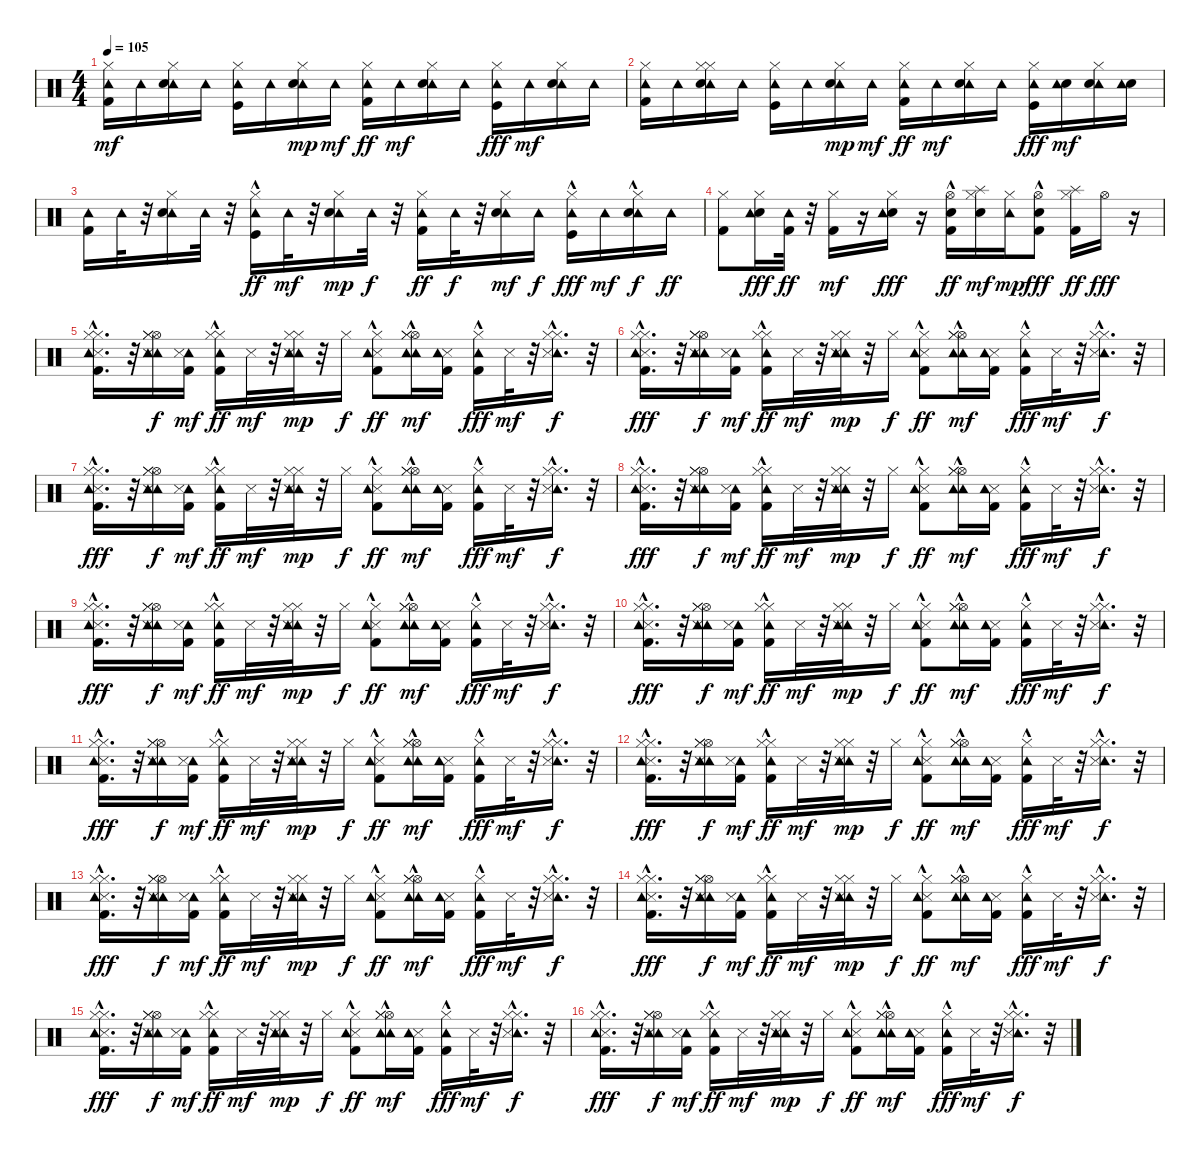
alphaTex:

\track "" {instrument percussion}
\staff {score}
\articulation defaults
\ts (4 4)
\tempo 105
\clef neutral
\ks c
("Kick (hit) 2" "Hi-Hat (closed)" "Tambourine (hit)").16{dy mf} "Tambourine (hit)".16 ("Hi-Hat (closed)" "Tambourine (hit)" "Snare (hit) 2").16 "Tambourine (hit)".16 ("Kick (hit)" "Hi-Hat (closed)" "Tambourine (hit)").16 "Tambourine (hit)".16 ("Tambourine (hit)" "Hi-Hat (closed)" "Snare (hit) 2").16{dy mp} "Tambourine (hit)".16{dy mf} ("Tambourine (hit)" "Hi-Hat (closed)" "Kick (hit) 2").16{dy ff} "Tambourine (hit)".16{dy mf} ("Tambourine (hit)" "Hi-Hat (closed)" "Snare (hit) 2").16 "Tambourine (hit)".16 ("Tambourine (hit)" "Kick (hit)" "Hi-Hat (closed)").16{dy fff} "Tambourine (hit)".16{dy mf} ("Tambourine (hit)" "Hi-Hat (closed)" "Snare (hit) 2").16 "Tambourine (hit)".16 |
("Kick (hit) 2" "Hi-Hat (closed)" "Tambourine (hit)").16 "Tambourine (hit)".16 ("Hi-Hat (closed)" "Tambourine (hit)" "Hi-Hat (closed)" "Snare (hit) 2").16 "Tambourine (hit)".16 ("Kick (hit)" "Hi-Hat (closed)" "Tambourine (hit)").16 "Tambourine (hit)".16 ("Tambourine (hit)" "Hi-Hat (closed)" "Snare (hit) 2").16{dy mp} "Tambourine (hit)".16{dy mf} ("Tambourine (hit)" "Hi-Hat (closed)" "Kick (hit) 2").16{dy ff} "Tambourine (hit)".16{dy mf} ("Tambourine (hit)" "Hi-Hat (closed)" "Snare (hit) 2").16 "Tambourine (hit)".16 ("Tambourine (hit)" "Kick (hit)" "Hi-Hat (closed)").16{dy fff} ("Snare (hit) 2" "Tambourine (hit)").16{dy mf} ("Hi-Hat (closed)" "Tambourine (hit)" "Snare (hit) 2").16 ("Snare (hit) 2" "Tambourine (hit)").16 |
("Tambourine (hit)" "Kick (hit) 2").16 "Tambourine (hit)".32 r.32 ("Tambourine (hit)" "Hi-Hat (closed)" "Snare (hit) 2").16 "Tambourine (hit)".32 r.32 ("Kick (hit)"{hac} "Hi-Hat (closed)" "Tambourine (hit)").16{dy ff} "Tambourine (hit)".32{dy mf} r.32 ("Tambourine (hit)" "Hi-Hat (closed)" "Snare (hit) 2").16{dy mp} "Tambourine (hit)".32{dy f} r.32 ("Tambourine (hit)" "Hi-Hat (closed)" "Kick (hit) 2").16{dy ff} "Tambourine (hit)".32{dy f} r.32 ("Tambourine (hit)" "Hi-Hat (closed)" "Snare (hit) 2").16{dy mf} "Tambourine (hit)".16{dy f} ("Tambourine (hit)" "Kick (hit)"{hac} "Hi-Hat (closed)").16{dy fff} "Tambourine (hit)".16{dy mf} ("Hi-Hat (closed)"{hac} "Tambourine (hit)" "Snare (hit) 2").16{dy f} "Tambourine (hit)".16{dy ff} |
("Hi-Hat (closed)" "Kick (hit) 2").8 ("Hi-Hat (closed)" "Snare (hit) 2" "Tambourine (hit)").16{dy fff} ("Kick (hit) 2" "Tambourine (hit)").32{dy ff} r.32 ("Kick (hit) 2" "Hi-Hat (closed)").16{dy mf} r.16 ("Hi-Hat (closed)" "Snare (hit) 2" "Tambourine (hit)").16{dy fff} r.16 ("Hi-Hat (open)"{hac} "Kick (hit) 2" "Snare (hit) 2").16{dy ff} ("Snare (hit) 2" "Hi-Hat (closed)" "Splash (hit)").16{dy mf} ("Tambourine (hit)" "Hi-Hat (closed)").16{dy mp} ("Kick (hit) 2" "Snare (hit) 2" "Hi-Hat (open)"{hac}).8{dy fff} ("Splash (hit)" "Hi-Hat (closed)" "Kick (hit) 2").16{dy ff} "Hi-Hat (open)".16{dy fff} r.16 |
("Snare (side stick) 3"{hac} "Hi-Hat (closed)"{hac} "Kick (hit) 2"{hac} "Hi-Hat (closed)"{hac} "Tambourine (hit)").16{d} r.32 ("Hi-Hat (open)" "Hi-Hat (closed)" "Tambourine (hit)" "Hi-Hat (closed)" "Snare (side stick) 3" "Tambourine (hit)").16{dy f} ("Tambourine (hit)" "Snare (side stick) 3" "Kick (hit) 2").16{dy mf} ("Tambourine (hit)" "Hi-Hat (closed)" "Kick (hit) 2"{hac} "Hi-Hat (closed)").16{dy ff} "Snare (side stick) 3".32{dy mf} r.32 ("Tambourine (hit)" "Snare (side stick) 3" "Hi-Hat (closed)" "Tambourine (hit)" "Hi-Hat (closed)").32{dy mp} r.32 "Hi-Hat (closed)".16{dy f} ("Snare (side stick) 3" "Hi-Hat (closed)"{hac} "Kick (hit) 2" "Tambourine (hit)").8{dy ff} ("Tambourine (hit)" "Hi-Hat (open)"{hac} "Hi-Hat (closed)" "Hi-Hat (closed)" "Tambourine (hit)").16{dy mf} ("Snare (side stick) 3" "Tambourine (hit)" "Kick (hit) 2").16 ("Tambourine (hit)" "Kick (hit) 2"{hac} "Hi-Hat (closed)").16{dy fff} "Snare (side stick) 3".32{dy mf} r.32 ("Hi-Hat (closed)"{hac} "Tambourine (hit)" "Hi-Hat (closed)"{hac} "Snare (side stick) 3").16{d dy f} r.32 |
("Snare (side stick) 3"{hac} "Hi-Hat (closed)"{hac} "Kick (hit) 2"{hac} "Hi-Hat (closed)"{hac} "Tambourine (hit)").16{d dy fff} r.32 ("Hi-Hat (open)" "Hi-Hat (closed)" "Tambourine (hit)" "Hi-Hat (closed)" "Snare (side stick) 3" "Tambourine (hit)").16{dy f} ("Tambourine (hit)" "Snare (side stick) 3" "Kick (hit) 2").16{dy mf} ("Tambourine (hit)" "Hi-Hat (closed)" "Kick (hit) 2"{hac} "Hi-Hat (closed)").16{dy ff} "Snare (side stick) 3".32{dy mf} r.32 ("Tambourine (hit)" "Snare (side stick) 3" "Hi-Hat (closed)" "Tambourine (hit)" "Hi-Hat (closed)").32{dy mp} r.32 "Hi-Hat (closed)".16{dy f} ("Snare (side stick) 3" "Hi-Hat (closed)"{hac} "Kick (hit) 2" "Tambourine (hit)").8{dy ff} ("Tambourine (hit)" "Hi-Hat (open)"{hac} "Hi-Hat (closed)" "Hi-Hat (closed)" "Tambourine (hit)").16{dy mf} ("Snare (side stick) 3" "Tambourine (hit)" "Kick (hit) 2").16 ("Tambourine (hit)" "Kick (hit) 2"{hac} "Hi-Hat (closed)").16{dy fff} "Snare (side stick) 3".32{dy mf} r.32 ("Hi-Hat (closed)"{hac} "Tambourine (hit)" "Hi-Hat (closed)"{hac} "Snare (side stick) 3").16{d dy f} r.32 |
("Snare (side stick) 3"{hac} "Hi-Hat (closed)"{hac} "Kick (hit) 2"{hac} "Hi-Hat (closed)"{hac} "Tambourine (hit)").16{d dy fff} r.32 ("Hi-Hat (open)" "Hi-Hat (closed)" "Tambourine (hit)" "Hi-Hat (closed)" "Snare (side stick) 3" "Tambourine (hit)").16{dy f} ("Tambourine (hit)" "Snare (side stick) 3" "Kick (hit) 2").16{dy mf} ("Tambourine (hit)" "Hi-Hat (closed)" "Kick (hit) 2"{hac} "Hi-Hat (closed)").16{dy ff} "Snare (side stick) 3".32{dy mf} r.32 ("Tambourine (hit)" "Snare (side stick) 3" "Hi-Hat (closed)" "Tambourine (hit)" "Hi-Hat (closed)").32{dy mp} r.32 "Hi-Hat (closed)".16{dy f} ("Snare (side stick) 3" "Hi-Hat (closed)"{hac} "Kick (hit) 2" "Tambourine (hit)").8{dy ff} ("Tambourine (hit)" "Hi-Hat (open)"{hac} "Hi-Hat (closed)" "Hi-Hat (closed)" "Tambourine (hit)").16{dy mf} ("Snare (side stick) 3" "Tambourine (hit)" "Kick (hit) 2").16 ("Tambourine (hit)" "Kick (hit) 2"{hac} "Hi-Hat (closed)").16{dy fff} "Snare (side stick) 3".32{dy mf} r.32 ("Hi-Hat (closed)"{hac} "Tambourine (hit)" "Hi-Hat (closed)"{hac} "Snare (side stick) 3").16{d dy f} r.32 |
("Snare (side stick) 3"{hac} "Hi-Hat (closed)"{hac} "Kick (hit) 2"{hac} "Hi-Hat (closed)"{hac} "Tambourine (hit)").16{d dy fff} r.32 ("Hi-Hat (open)" "Hi-Hat (closed)" "Tambourine (hit)" "Hi-Hat (closed)" "Snare (side stick) 3" "Tambourine (hit)").16{dy f} ("Tambourine (hit)" "Snare (side stick) 3" "Kick (hit) 2").16{dy mf} ("Tambourine (hit)" "Hi-Hat (closed)" "Kick (hit) 2"{hac} "Hi-Hat (closed)").16{dy ff} "Snare (side stick) 3".32{dy mf} r.32 ("Tambourine (hit)" "Snare (side stick) 3" "Hi-Hat (closed)" "Tambourine (hit)" "Hi-Hat (closed)").32{dy mp} r.32 "Hi-Hat (closed)".16{dy f} ("Snare (side stick) 3" "Hi-Hat (closed)"{hac} "Kick (hit) 2" "Tambourine (hit)").8{dy ff} ("Tambourine (hit)" "Hi-Hat (open)"{hac} "Hi-Hat (closed)" "Hi-Hat (closed)" "Tambourine (hit)").16{dy mf} ("Snare (side stick) 3" "Tambourine (hit)" "Kick (hit) 2").16 ("Tambourine (hit)" "Kick (hit) 2"{hac} "Hi-Hat (closed)").16{dy fff} "Snare (side stick) 3".32{dy mf} r.32 ("Hi-Hat (closed)"{hac} "Tambourine (hit)" "Hi-Hat (closed)"{hac} "Snare (side stick) 3").16{d dy f} r.32 |
("Snare (side stick) 3"{hac} "Hi-Hat (closed)"{hac} "Kick (hit) 2"{hac} "Hi-Hat (closed)"{hac} "Tambourine (hit)").16{d dy fff} r.32 ("Hi-Hat (open)" "Hi-Hat (closed)" "Tambourine (hit)" "Hi-Hat (closed)" "Snare (side stick) 3" "Tambourine (hit)").16{dy f} ("Tambourine (hit)" "Snare (side stick) 3" "Kick (hit) 2").16{dy mf} ("Tambourine (hit)" "Hi-Hat (closed)" "Kick (hit) 2"{hac} "Hi-Hat (closed)").16{dy ff} "Snare (side stick) 3".32{dy mf} r.32 ("Tambourine (hit)" "Snare (side stick) 3" "Hi-Hat (closed)" "Tambourine (hit)" "Hi-Hat (closed)").32{dy mp} r.32 "Hi-Hat (closed)".16{dy f} ("Snare (side stick) 3" "Hi-Hat (closed)"{hac} "Kick (hit) 2" "Tambourine (hit)").8{dy ff} ("Tambourine (hit)" "Hi-Hat (open)"{hac} "Hi-Hat (closed)" "Hi-Hat (closed)" "Tambourine (hit)").16{dy mf} ("Snare (side stick) 3" "Tambourine (hit)" "Kick (hit) 2").16 ("Tambourine (hit)" "Kick (hit) 2"{hac} "Hi-Hat (closed)").16{dy fff} "Snare (side stick) 3".32{dy mf} r.32 ("Hi-Hat (closed)"{hac} "Tambourine (hit)" "Hi-Hat (closed)"{hac} "Snare (side stick) 3").16{d dy f} r.32 |
("Snare (side stick) 3"{hac} "Hi-Hat (closed)"{hac} "Kick (hit) 2"{hac} "Hi-Hat (closed)"{hac} "Tambourine (hit)").16{d dy fff} r.32 ("Hi-Hat (open)" "Hi-Hat (closed)" "Tambourine (hit)" "Hi-Hat (closed)" "Snare (side stick) 3" "Tambourine (hit)").16{dy f} ("Tambourine (hit)" "Snare (side stick) 3" "Kick (hit) 2").16{dy mf} ("Tambourine (hit)" "Hi-Hat (closed)" "Kick (hit) 2"{hac} "Hi-Hat (closed)").16{dy ff} "Snare (side stick) 3".32{dy mf} r.32 ("Tambourine (hit)" "Snare (side stick) 3" "Hi-Hat (closed)" "Tambourine (hit)" "Hi-Hat (closed)").32{dy mp} r.32 "Hi-Hat (closed)".16{dy f} ("Snare (side stick) 3" "Hi-Hat (closed)"{hac} "Kick (hit) 2" "Tambourine (hit)").8{dy ff} ("Tambourine (hit)" "Hi-Hat (open)"{hac} "Hi-Hat (closed)" "Hi-Hat (closed)" "Tambourine (hit)").16{dy mf} ("Snare (side stick) 3" "Tambourine (hit)" "Kick (hit) 2").16 ("Tambourine (hit)" "Kick (hit) 2"{hac} "Hi-Hat (closed)").16{dy fff} "Snare (side stick) 3".32{dy mf} r.32 ("Hi-Hat (closed)"{hac} "Tambourine (hit)" "Hi-Hat (closed)"{hac} "Snare (side stick) 3").16{d dy f} r.32 |
("Snare (side stick) 3"{hac} "Hi-Hat (closed)"{hac} "Kick (hit) 2"{hac} "Hi-Hat (closed)"{hac} "Tambourine (hit)").16{d dy fff} r.32 ("Hi-Hat (open)" "Hi-Hat (closed)" "Tambourine (hit)" "Hi-Hat (closed)" "Snare (side stick) 3" "Tambourine (hit)").16{dy f} ("Tambourine (hit)" "Snare (side stick) 3" "Kick (hit) 2").16{dy mf} ("Tambourine (hit)" "Hi-Hat (closed)" "Kick (hit) 2"{hac} "Hi-Hat (closed)").16{dy ff} "Snare (side stick) 3".32{dy mf} r.32 ("Tambourine (hit)" "Snare (side stick) 3" "Hi-Hat (closed)" "Tambourine (hit)" "Hi-Hat (closed)").32{dy mp} r.32 "Hi-Hat (closed)".16{dy f} ("Snare (side stick) 3" "Hi-Hat (closed)"{hac} "Kick (hit) 2" "Tambourine (hit)").8{dy ff} ("Tambourine (hit)" "Hi-Hat (open)"{hac} "Hi-Hat (closed)" "Hi-Hat (closed)" "Tambourine (hit)").16{dy mf} ("Snare (side stick) 3" "Tambourine (hit)" "Kick (hit) 2").16 ("Tambourine (hit)" "Kick (hit) 2"{hac} "Hi-Hat (closed)").16{dy fff} "Snare (side stick) 3".32{dy mf} r.32 ("Hi-Hat (closed)"{hac} "Tambourine (hit)" "Hi-Hat (closed)"{hac} "Snare (side stick) 3").16{d dy f} r.32 |
("Snare (side stick) 3"{hac} "Hi-Hat (closed)"{hac} "Kick (hit) 2"{hac} "Hi-Hat (closed)"{hac} "Tambourine (hit)").16{d dy fff} r.32 ("Hi-Hat (open)" "Hi-Hat (closed)" "Tambourine (hit)" "Hi-Hat (closed)" "Snare (side stick) 3" "Tambourine (hit)").16{dy f} ("Tambourine (hit)" "Snare (side stick) 3" "Kick (hit) 2").16{dy mf} ("Tambourine (hit)" "Hi-Hat (closed)" "Kick (hit) 2"{hac} "Hi-Hat (closed)").16{dy ff} "Snare (side stick) 3".32{dy mf} r.32 ("Tambourine (hit)" "Snare (side stick) 3" "Hi-Hat (closed)" "Tambourine (hit)" "Hi-Hat (closed)").32{dy mp} r.32 "Hi-Hat (closed)".16{dy f} ("Snare (side stick) 3" "Hi-Hat (closed)"{hac} "Kick (hit) 2" "Tambourine (hit)").8{dy ff} ("Tambourine (hit)" "Hi-Hat (open)"{hac} "Hi-Hat (closed)" "Hi-Hat (closed)" "Tambourine (hit)").16{dy mf} ("Snare (side stick) 3" "Tambourine (hit)" "Kick (hit) 2").16 ("Tambourine (hit)" "Kick (hit) 2"{hac} "Hi-Hat (closed)").16{dy fff} "Snare (side stick) 3".32{dy mf} r.32 ("Hi-Hat (closed)"{hac} "Tambourine (hit)" "Hi-Hat (closed)"{hac} "Snare (side stick) 3").16{d dy f} r.32 |
("Snare (side stick) 3"{hac} "Hi-Hat (closed)"{hac} "Kick (hit) 2"{hac} "Hi-Hat (closed)"{hac} "Tambourine (hit)").16{d dy fff} r.32 ("Hi-Hat (open)" "Hi-Hat (closed)" "Tambourine (hit)" "Hi-Hat (closed)" "Snare (side stick) 3" "Tambourine (hit)").16{dy f} ("Tambourine (hit)" "Snare (side stick) 3" "Kick (hit) 2").16{dy mf} ("Tambourine (hit)" "Hi-Hat (closed)" "Kick (hit) 2"{hac} "Hi-Hat (closed)").16{dy ff} "Snare (side stick) 3".32{dy mf} r.32 ("Tambourine (hit)" "Snare (side stick) 3" "Hi-Hat (closed)" "Tambourine (hit)" "Hi-Hat (closed)").32{dy mp} r.32 "Hi-Hat (closed)".16{dy f} ("Snare (side stick) 3" "Hi-Hat (closed)"{hac} "Kick (hit) 2" "Tambourine (hit)").8{dy ff} ("Tambourine (hit)" "Hi-Hat (open)"{hac} "Hi-Hat (closed)" "Hi-Hat (closed)" "Tambourine (hit)").16{dy mf} ("Snare (side stick) 3" "Tambourine (hit)" "Kick (hit) 2").16 ("Tambourine (hit)" "Kick (hit) 2"{hac} "Hi-Hat (closed)").16{dy fff} "Snare (side stick) 3".32{dy mf} r.32 ("Hi-Hat (closed)"{hac} "Tambourine (hit)" "Hi-Hat (closed)"{hac} "Snare (side stick) 3").16{d dy f} r.32 |
("Snare (side stick) 3"{hac} "Hi-Hat (closed)"{hac} "Kick (hit) 2"{hac} "Hi-Hat (closed)"{hac} "Tambourine (hit)").16{d dy fff} r.32 ("Hi-Hat (open)" "Hi-Hat (closed)" "Tambourine (hit)" "Hi-Hat (closed)" "Snare (side stick) 3" "Tambourine (hit)").16{dy f} ("Tambourine (hit)" "Snare (side stick) 3" "Kick (hit) 2").16{dy mf} ("Tambourine (hit)" "Hi-Hat (closed)" "Kick (hit) 2"{hac} "Hi-Hat (closed)").16{dy ff} "Snare (side stick) 3".32{dy mf} r.32 ("Tambourine (hit)" "Snare (side stick) 3" "Hi-Hat (closed)" "Tambourine (hit)" "Hi-Hat (closed)").32{dy mp} r.32 "Hi-Hat (closed)".16{dy f} ("Snare (side stick) 3" "Hi-Hat (closed)"{hac} "Kick (hit) 2" "Tambourine (hit)").8{dy ff} ("Tambourine (hit)" "Hi-Hat (open)"{hac} "Hi-Hat (closed)" "Hi-Hat (closed)" "Tambourine (hit)").16{dy mf} ("Snare (side stick) 3" "Tambourine (hit)" "Kick (hit) 2").16 ("Tambourine (hit)" "Kick (hit) 2"{hac} "Hi-Hat (closed)").16{dy fff} "Snare (side stick) 3".32{dy mf} r.32 ("Hi-Hat (closed)"{hac} "Tambourine (hit)" "Hi-Hat (closed)"{hac} "Snare (side stick) 3").16{d dy f} r.32 |
("Snare (side stick) 3"{hac} "Hi-Hat (closed)"{hac} "Kick (hit) 2"{hac} "Hi-Hat (closed)"{hac} "Tambourine (hit)").16{d dy fff} r.32 ("Hi-Hat (open)" "Hi-Hat (closed)" "Tambourine (hit)" "Hi-Hat (closed)" "Snare (side stick) 3" "Tambourine (hit)").16{dy f} ("Tambourine (hit)" "Snare (side stick) 3" "Kick (hit) 2").16{dy mf} ("Tambourine (hit)" "Hi-Hat (closed)" "Kick (hit) 2"{hac} "Hi-Hat (closed)").16{dy ff} "Snare (side stick) 3".32{dy mf} r.32 ("Tambourine (hit)" "Snare (side stick) 3" "Hi-Hat (closed)" "Tambourine (hit)" "Hi-Hat (closed)").32{dy mp} r.32 "Hi-Hat (closed)".16{dy f} ("Snare (side stick) 3" "Hi-Hat (closed)"{hac} "Kick (hit) 2" "Tambourine (hit)").8{dy ff} ("Tambourine (hit)" "Hi-Hat (open)"{hac} "Hi-Hat (closed)" "Hi-Hat (closed)" "Tambourine (hit)").16{dy mf} ("Snare (side stick) 3" "Tambourine (hit)" "Kick (hit) 2").16 ("Tambourine (hit)" "Kick (hit) 2"{hac} "Hi-Hat (closed)").16{dy fff} "Snare (side stick) 3".32{dy mf} r.32 ("Hi-Hat (closed)"{hac} "Tambourine (hit)" "Hi-Hat (closed)"{hac} "Snare (side stick) 3").16{d dy f} r.32 |
("Snare (side stick) 3"{hac} "Hi-Hat (closed)"{hac} "Kick (hit) 2"{hac} "Hi-Hat (closed)"{hac} "Tambourine (hit)").16{d dy fff} r.32 ("Hi-Hat (open)" "Hi-Hat (closed)" "Tambourine (hit)" "Hi-Hat (closed)" "Snare (side stick) 3" "Tambourine (hit)").16{dy f} ("Tambourine (hit)" "Snare (side stick) 3" "Kick (hit) 2").16{dy mf} ("Tambourine (hit)" "Hi-Hat (closed)" "Kick (hit) 2"{hac} "Hi-Hat (closed)").16{dy ff} "Snare (side stick) 3".32{dy mf} r.32 ("Tambourine (hit)" "Snare (side stick) 3" "Hi-Hat (closed)" "Tambourine (hit)" "Hi-Hat (closed)").32{dy mp} r.32 "Hi-Hat (closed)".16{dy f} ("Snare (side stick) 3" "Hi-Hat (closed)"{hac} "Kick (hit) 2" "Tambourine (hit)").8{dy ff} ("Tambourine (hit)" "Hi-Hat (open)"{hac} "Hi-Hat (closed)" "Hi-Hat (closed)" "Tambourine (hit)").16{dy mf} ("Snare (side stick) 3" "Tambourine (hit)" "Kick (hit) 2").16 ("Tambourine (hit)" "Kick (hit) 2"{hac} "Hi-Hat (closed)").16{dy fff} "Snare (side stick) 3".32{dy mf} r.32 ("Hi-Hat (closed)"{hac} "Tambourine (hit)" "Hi-Hat (closed)"{hac} "Snare (side stick) 3").16{d dy f} r.32
